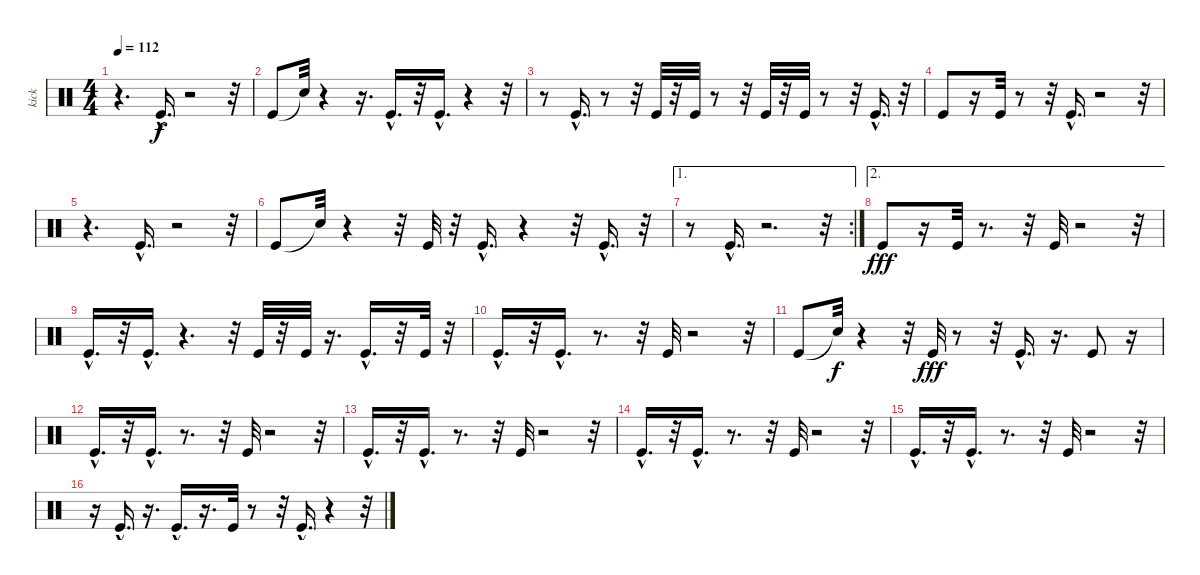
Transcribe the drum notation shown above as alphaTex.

\track ("kick" "kick") {instrument percussion}
\staff {score}
\articulation defaults
\ts (4 4)
\tempo 112
\clef neutral
\ks c
r.4{d dy f} "Kick (hit)"{hac}.16{d} r.2 r.32 |
"Kick (hit)".8 "Snare (hit)"{t}.32 r.4 r.16{d} "Kick (hit)"{hac}.16{d} r.32 "Kick (hit)"{hac}.16{d} r.4 r.32 |
r.8 "Kick (hit)"{hac}.16{d} r.8 r.32 "Kick (hit)".32 r.32 "Kick (hit)".32 r.8 r.32 "Kick (hit)".32 r.32 "Kick (hit)".32 r.8 r.32 "Kick (hit)"{hac}.16{d} r.32 |
"Kick (hit)".8 r.16 "Kick (hit)".32 r.8 r.32 "Kick (hit)"{hac}.16{d} r.2 r.32 |
r.4{d} "Kick (hit)"{hac}.16{d} r.2 r.32 |
"Kick (hit)".8 "Snare (hit)"{t}.32 r.4 r.32 "Kick (hit)".32 r.32 "Kick (hit)"{hac}.16{d} r.4 r.32 "Kick (hit)"{hac}.16{d} r.32 |
\ae 1
\rc 2
r.8 "Kick (hit)"{hac}.16{d} r.2{d} r.32 |
\ae 2 "Kick (hit)".8{dy fff}
r.16 "Kick (hit)".32 r.8{d} r.32 "Kick (hit)".32 r.2 r.32 |
"Kick (hit)"{hac}.16{d} r.32 "Kick (hit)"{hac}.16{d} r.4{d} r.32 "Kick (hit)".32 r.32 "Kick (hit)".32 r.16{d} "Kick (hit)"{hac}.16{d} r.32 "Kick (hit)".32 r.32 |
"Kick (hit)"{hac}.16{d} r.32 "Kick (hit)"{hac}.16{d} r.8{d} r.32 "Kick (hit)".32 r.2 r.32 |
"Kick (hit)".8 "Snare (hit)"{t}.32{dy f} r.4 r.32 "Kick (hit)".32{dy fff} r.8 r.32 "Kick (hit)"{hac}.16{d} r.16{d} "Kick (hit)".8 r.16 |
"Kick (hit)"{hac}.16{d} r.32 "Kick (hit)"{hac}.16{d} r.8{d} r.32 "Kick (hit)".32 r.2 r.32 |
"Kick (hit)"{hac}.16{d} r.32 "Kick (hit)"{hac}.16{d} r.8{d} r.32 "Kick (hit)".32 r.2 r.32 |
"Kick (hit)"{hac}.16{d} r.32 "Kick (hit)"{hac}.16{d} r.8{d} r.32 "Kick (hit)".32 r.2 r.32 |
"Kick (hit)"{hac}.16{d} r.32 "Kick (hit)"{hac}.16{d} r.8{d} r.32 "Kick (hit)".32 r.2 r.32 |
r.16 "Kick (hit)"{hac}.16{d} r.16{d} "Kick (hit)"{hac}.16{d} r.16{d} "Kick (hit)".32 r.8 r.32 "Kick (hit)"{hac}.16{d} r.4 r.32
